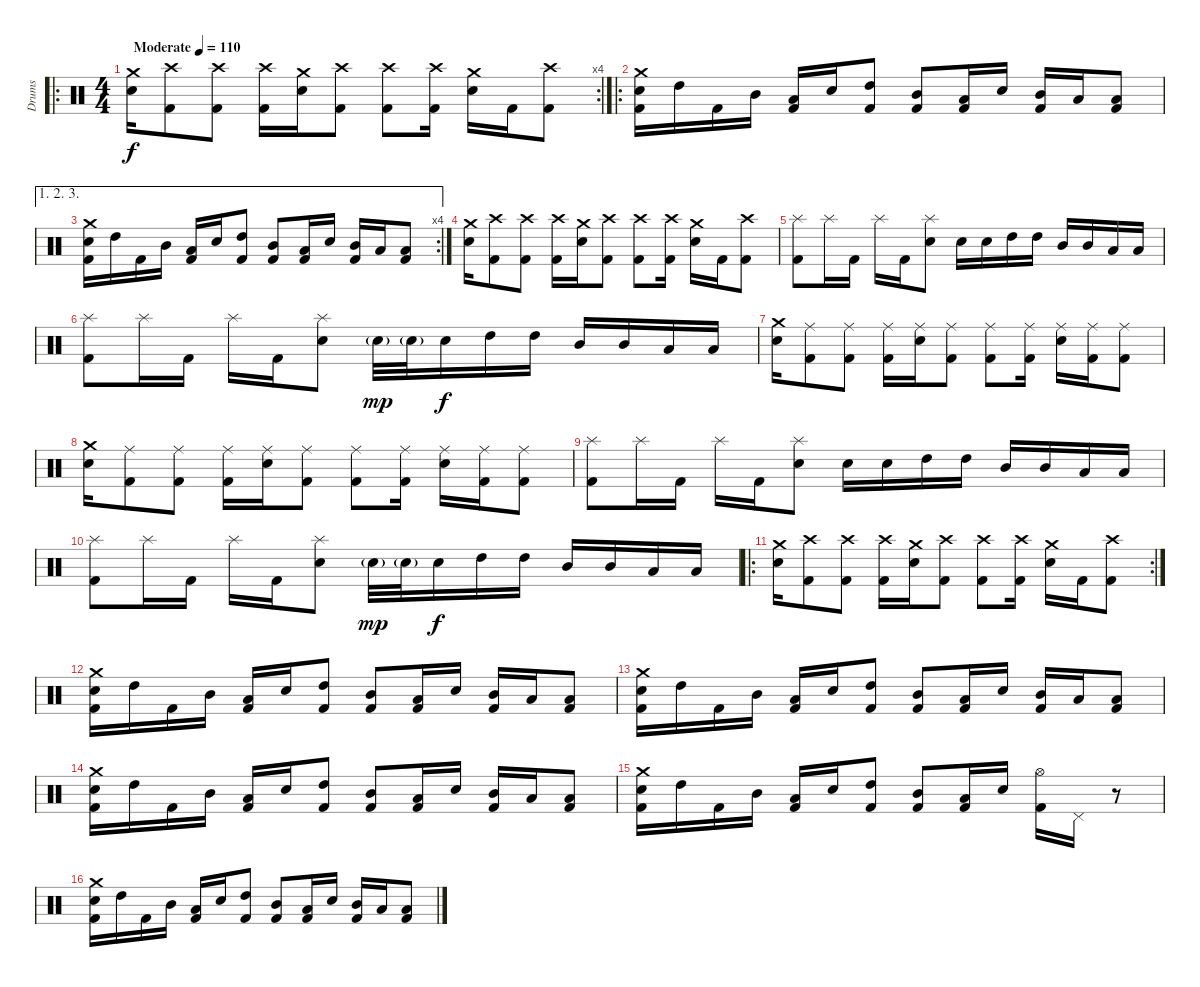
\track ("Drums" "Drums") {instrument percussion}
\staff {score}
\articulation defaults
\ro
\rc 4
\ts (4 4)
\tempo (110 "Moderate")
\clef neutral
\ks c
("Crash medium (hit)" "Electric Snare (hit)").16{dy f} ("Crash high (hit)" "Kick (hit) 2").8 ("Crash high (hit)" "Kick (hit) 2").8 ("Crash high (hit)" "Kick (hit) 2").16 ("Crash medium (hit)" "Electric Snare (hit)").16 ("Crash high (hit)" "Kick (hit) 2").8 ("Crash high (hit)" "Kick (hit) 2").8 ("Crash high (hit)" "Kick (hit) 2").16 ("Crash medium (hit)" "Electric Snare (hit)").16 "Kick (hit) 2".16 ("Crash high (hit)" "Kick (hit) 2").8 |
\ro
("Crash medium (hit)" "Electric Snare (hit)" "Kick (hit) 2").16 "High Tom (hit)".16 "Kick (hit) 2".16 "Mid Tom (hit)".16 ("Low Tom (hit)" "Kick (hit) 2").16 "Electric Snare (hit)".16 ("High Tom (hit)" "Kick (hit) 2").8 ("Mid Tom (hit)" "Kick (hit) 2").8 ("Low Tom (hit)" "Kick (hit) 2").16 "Electric Snare (hit)".16 ("Mid Tom (hit)" "Kick (hit) 2").16 "Low Tom (hit)".16 ("Low Tom (hit)" "Kick (hit) 2").8 |
\ae (1 2 3)
\rc 4
("Crash medium (hit)" "Electric Snare (hit)" "Kick (hit) 2").16 "High Tom (hit)".16 "Kick (hit) 2".16 "Mid Tom (hit)".16 ("Low Tom (hit)" "Kick (hit) 2").16 "Electric Snare (hit)".16 ("High Tom (hit)" "Kick (hit) 2").8 ("Mid Tom (hit)" "Kick (hit) 2").8 ("Low Tom (hit)" "Kick (hit) 2").16 "Electric Snare (hit)".16 ("Mid Tom (hit)" "Kick (hit) 2").16 "Low Tom (hit)".16 ("Low Tom (hit)" "Kick (hit) 2").8 |
("Crash medium (hit)" "Electric Snare (hit)").16 ("Crash high (hit)" "Kick (hit) 2").8 ("Crash high (hit)" "Kick (hit) 2").8 ("Crash high (hit)" "Kick (hit) 2").16 ("Crash medium (hit)" "Electric Snare (hit)").16 ("Crash high (hit)" "Kick (hit) 2").8 ("Crash high (hit)" "Kick (hit) 2").8 ("Crash high (hit)" "Kick (hit) 2").16 ("Crash medium (hit)" "Electric Snare (hit)").16 "Kick (hit) 2".16 ("Crash high (hit)" "Kick (hit) 2").8 |
("Splash (hit)" "Kick (hit) 2").8 "Splash (hit)".16 "Kick (hit) 2".16 "Splash (hit)".16 "Kick (hit) 2".16 ("Splash (hit)" "Electric Snare (hit)").8 "Electric Snare (hit)".16 "Electric Snare (hit)".16 "High Tom (hit)".16 "High Tom (hit)".16 "Mid Tom (hit)".16 "Mid Tom (hit)".16 "Low Tom (hit)".16 "Low Tom (hit)".16 |
("Splash (hit)" "Kick (hit) 2").8 "Splash (hit)".16 "Kick (hit) 2".16 "Splash (hit)".16 "Kick (hit) 2".16 ("Splash (hit)" "Electric Snare (hit)").8 "Electric Snare (hit)"{g}.32{dy mp} "Electric Snare (hit)"{g}.32 "Electric Snare (hit)".16{dy f} "High Tom (hit)".16 "High Tom (hit)".16 "Mid Tom (hit)".16 "Mid Tom (hit)".16 "Low Tom (hit)".16 "Low Tom (hit)".16 |
("Crash medium (hit)" "Electric Snare (hit)").16 ("Ride (middle)" "Kick (hit) 2").8 ("Ride (middle)" "Kick (hit) 2").8 ("Ride (middle)" "Kick (hit) 2").16 ("Ride (middle)" "Electric Snare (hit)").16 ("Ride (middle)" "Kick (hit) 2").8 ("Ride (middle)" "Kick (hit) 2").8 ("Ride (middle)" "Kick (hit) 2").16 ("Ride (middle)" "Electric Snare (hit)").16 ("Ride (middle)" "Kick (hit) 2").16 ("Ride (middle)" "Kick (hit) 2").8 |
("Crash medium (hit)" "Electric Snare (hit)").16 ("Ride (middle)" "Kick (hit) 2").8 ("Ride (middle)" "Kick (hit) 2").8 ("Ride (middle)" "Kick (hit) 2").16 ("Ride (middle)" "Electric Snare (hit)").16 ("Ride (middle)" "Kick (hit) 2").8 ("Ride (middle)" "Kick (hit) 2").8 ("Ride (middle)" "Kick (hit) 2").16 ("Ride (middle)" "Electric Snare (hit)").16 ("Ride (middle)" "Kick (hit) 2").16 ("Ride (middle)" "Kick (hit) 2").8 |
("Splash (hit)" "Kick (hit) 2").8 "Splash (hit)".16 "Kick (hit) 2".16 "Splash (hit)".16 "Kick (hit) 2".16 ("Splash (hit)" "Electric Snare (hit)").8 "Electric Snare (hit)".16 "Electric Snare (hit)".16 "High Tom (hit)".16 "High Tom (hit)".16 "Mid Tom (hit)".16 "Mid Tom (hit)".16 "Low Tom (hit)".16 "Low Tom (hit)".16 |
("Splash (hit)" "Kick (hit) 2").8 "Splash (hit)".16 "Kick (hit) 2".16 "Splash (hit)".16 "Kick (hit) 2".16 ("Splash (hit)" "Electric Snare (hit)").8 "Electric Snare (hit)"{g}.32{dy mp} "Electric Snare (hit)"{g}.32 "Electric Snare (hit)".16{dy f} "High Tom (hit)".16 "High Tom (hit)".16 "Mid Tom (hit)".16 "Mid Tom (hit)".16 "Low Tom (hit)".16 "Low Tom (hit)".16 |
\ro
\rc 2
("Crash medium (hit)" "Electric Snare (hit)").16 ("Crash high (hit)" "Kick (hit) 2").8 ("Crash high (hit)" "Kick (hit) 2").8 ("Crash high (hit)" "Kick (hit) 2").16 ("Crash medium (hit)" "Electric Snare (hit)").16 ("Crash high (hit)" "Kick (hit) 2").8 ("Crash high (hit)" "Kick (hit) 2").8 ("Crash high (hit)" "Kick (hit) 2").16 ("Crash medium (hit)" "Electric Snare (hit)").16 "Kick (hit) 2".16 ("Crash high (hit)" "Kick (hit) 2").8 |
("Crash medium (hit)" "Electric Snare (hit)" "Kick (hit) 2").16 "High Tom (hit)".16 "Kick (hit) 2".16 "Mid Tom (hit)".16 ("Low Tom (hit)" "Kick (hit) 2").16 "Electric Snare (hit)".16 ("High Tom (hit)" "Kick (hit) 2").8 ("Mid Tom (hit)" "Kick (hit) 2").8 ("Low Tom (hit)" "Kick (hit) 2").16 "Electric Snare (hit)".16 ("Mid Tom (hit)" "Kick (hit) 2").16 "Low Tom (hit)".16 ("Low Tom (hit)" "Kick (hit) 2").8 |
("Crash medium (hit)" "Electric Snare (hit)" "Kick (hit) 2").16 "High Tom (hit)".16 "Kick (hit) 2".16 "Mid Tom (hit)".16 ("Low Tom (hit)" "Kick (hit) 2").16 "Electric Snare (hit)".16 ("High Tom (hit)" "Kick (hit) 2").8 ("Mid Tom (hit)" "Kick (hit) 2").8 ("Low Tom (hit)" "Kick (hit) 2").16 "Electric Snare (hit)".16 ("Mid Tom (hit)" "Kick (hit) 2").16 "Low Tom (hit)".16 ("Low Tom (hit)" "Kick (hit) 2").8 |
("Crash medium (hit)" "Electric Snare (hit)" "Kick (hit) 2").16 "High Tom (hit)".16 "Kick (hit) 2".16 "Mid Tom (hit)".16 ("Low Tom (hit)" "Kick (hit) 2").16 "Electric Snare (hit)".16 ("High Tom (hit)" "Kick (hit) 2").8 ("Mid Tom (hit)" "Kick (hit) 2").8 ("Low Tom (hit)" "Kick (hit) 2").16 "Electric Snare (hit)".16 ("Mid Tom (hit)" "Kick (hit) 2").16 "Low Tom (hit)".16 ("Low Tom (hit)" "Kick (hit) 2").8 |
("Crash medium (hit)" "Electric Snare (hit)" "Kick (hit) 2").16 "High Tom (hit)".16 "Kick (hit) 2".16 "Mid Tom (hit)".16 ("Low Tom (hit)" "Kick (hit) 2").16 "Electric Snare (hit)".16 ("High Tom (hit)" "Kick (hit) 2").8 ("Mid Tom (hit)" "Kick (hit) 2").8 ("Low Tom (hit)" "Kick (hit) 2").16 "Electric Snare (hit)".16 ("Hi-Hat (open)" "Kick (hit) 2").16 "Pedal Hi-Hat (hit)".16 r.8 |
("Crash medium (hit)" "Electric Snare (hit)" "Kick (hit) 2").16 "High Tom (hit)".16 "Kick (hit) 2".16 "Mid Tom (hit)".16 ("Low Tom (hit)" "Kick (hit) 2").16 "Electric Snare (hit)".16 ("High Tom (hit)" "Kick (hit) 2").8 ("Mid Tom (hit)" "Kick (hit) 2").8 ("Low Tom (hit)" "Kick (hit) 2").16 "Electric Snare (hit)".16 ("Mid Tom (hit)" "Kick (hit) 2").16 "Low Tom (hit)".16 ("Low Tom (hit)" "Kick (hit) 2").8
